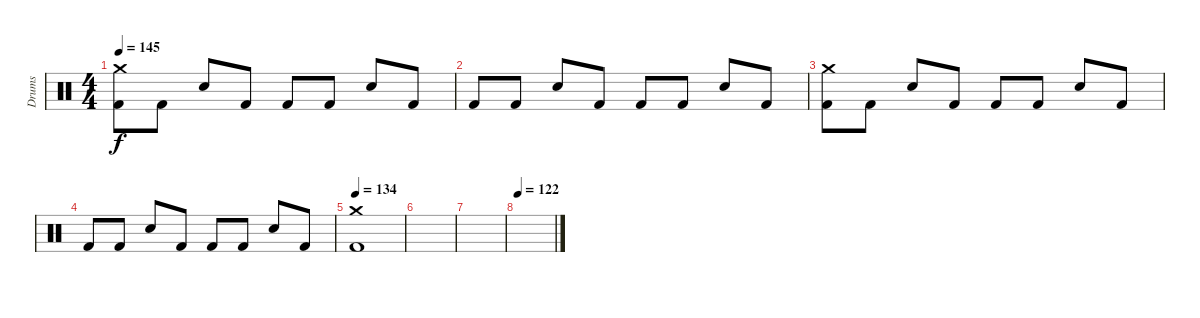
\track ("Drums" "Drums") {instrument percussion}
\staff {score}
\articulation defaults
\ts (4 4)
\tempo 145
\clef neutral
\ks c
("Crash medium (hit)" "Kick (hit) 2").8{dy f} "Kick (hit) 2".8 "Snare (hit) 2".8 "Kick (hit) 2".8 "Kick (hit) 2".8 "Kick (hit) 2".8 "Snare (hit) 2".8 "Kick (hit) 2".8 |
"Kick (hit) 2".8 "Kick (hit) 2".8 "Snare (hit) 2".8 "Kick (hit) 2".8 "Kick (hit) 2".8 "Kick (hit) 2".8 "Snare (hit) 2".8 "Kick (hit) 2".8 |
("Crash medium (hit)" "Kick (hit) 2").8 "Kick (hit) 2".8 "Snare (hit) 2".8 "Kick (hit) 2".8 "Kick (hit) 2".8 "Kick (hit) 2".8 "Snare (hit) 2".8 "Kick (hit) 2".8 |
"Kick (hit) 2".8 "Kick (hit) 2".8 "Snare (hit) 2".8 "Kick (hit) 2".8 "Kick (hit) 2".8 "Kick (hit) 2".8 "Snare (hit) 2".8 "Kick (hit) 2".8 |
\tempo 134
("Crash medium (hit)" "Kick (hit) 2").1 |
|
|
\tempo 122
